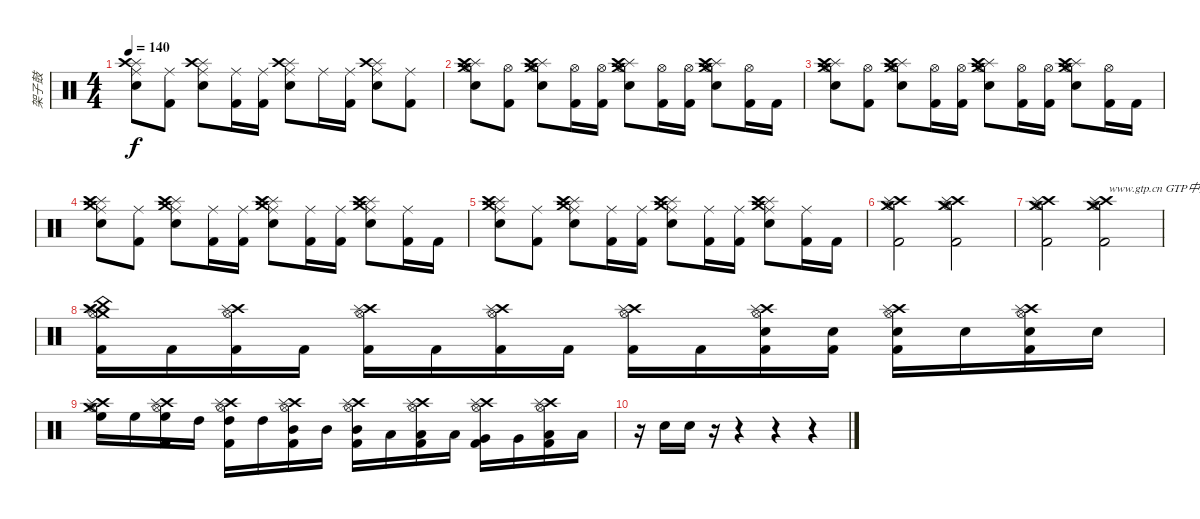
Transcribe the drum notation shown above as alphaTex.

\track ("架子鼓" "架子鼓") {instrument percussion}
\staff {score}
\articulation defaults
\ts (4 4)
\tempo 140
\clef neutral
\ks c
("Ride (middle)" "Splash (hit)" "Snare (hit) 2" "Crash high (hit)").8{dy f} ("Ride (middle)" "Kick (hit) 2").8 ("Ride (middle)" "Splash (hit)" "Snare (hit) 2" "Crash high (hit)").8 ("Ride (middle)" "Kick (hit) 2").16 ("Ride (middle)" "Kick (hit) 2").16 ("Ride (middle)" "Splash (hit)" "Snare (hit) 2" "Crash high (hit)").8 "Ride (middle)".16 ("Ride (middle)" "Kick (hit) 2").16 ("Ride (middle)" "Splash (hit)" "Snare (hit) 2" "Crash high (hit)").8 ("Ride (middle)" "Kick (hit) 2").8 |
("Hi-Hat (open)" "Splash (hit)" "Snare (hit) 2" "Crash high (hit)" "Crash medium (hit)").8 ("Hi-Hat (open)" "Kick (hit) 2").8 ("Hi-Hat (open)" "Splash (hit)" "Snare (hit) 2" "Crash high (hit)" "Crash medium (hit)").8 ("Hi-Hat (open)" "Kick (hit) 2").16 ("Hi-Hat (open)" "Kick (hit) 2").16 ("Hi-Hat (open)" "Splash (hit)" "Snare (hit) 2" "Crash high (hit)" "Crash medium (hit)").8 ("Hi-Hat (open)" "Kick (hit) 2").16 ("Hi-Hat (open)" "Kick (hit) 2").16 ("Hi-Hat (open)" "Splash (hit)" "Snare (hit) 2" "Crash high (hit)" "Crash medium (hit)").8 ("Hi-Hat (open)" "Kick (hit) 2").16 "Kick (hit) 2".16 |
("Hi-Hat (open)" "Splash (hit)" "Snare (hit) 2" "Crash high (hit)" "Crash medium (hit)").8 ("Hi-Hat (open)" "Kick (hit) 2").8 ("Hi-Hat (open)" "Splash (hit)" "Snare (hit) 2" "Crash high (hit)" "Crash medium (hit)").8 ("Hi-Hat (open)" "Kick (hit) 2").16 ("Hi-Hat (open)" "Kick (hit) 2").16 ("Hi-Hat (open)" "Splash (hit)" "Snare (hit) 2" "Crash high (hit)" "Crash medium (hit)").8 ("Hi-Hat (open)" "Kick (hit) 2").16 ("Hi-Hat (open)" "Kick (hit) 2").16 ("Hi-Hat (open)" "Splash (hit)" "Snare (hit) 2" "Crash high (hit)" "Crash medium (hit)").8 ("Hi-Hat (open)" "Kick (hit) 2").16 "Kick (hit) 2".16 |
("Ride (middle)" "Splash (hit)" "Snare (hit) 2" "Crash high (hit)" "Crash medium (hit)").8 ("Ride (middle)" "Kick (hit) 2").8 ("Ride (middle)" "Splash (hit)" "Snare (hit) 2" "Crash high (hit)" "Crash medium (hit)").8 ("Ride (middle)" "Kick (hit) 2").16 ("Ride (middle)" "Kick (hit) 2").16 ("Ride (middle)" "Splash (hit)" "Snare (hit) 2" "Crash high (hit)" "Crash medium (hit)").8 ("Ride (middle)" "Kick (hit) 2").16 ("Ride (middle)" "Kick (hit) 2").16 ("Ride (middle)" "Splash (hit)" "Snare (hit) 2" "Crash high (hit)" "Crash medium (hit)").8 ("Ride (middle)" "Kick (hit) 2").16 "Kick (hit) 2".16 |
("Ride (middle)" "Splash (hit)" "Snare (hit) 2" "Crash high (hit)" "Crash medium (hit)").8 ("Ride (middle)" "Kick (hit) 2").8 ("Ride (middle)" "Splash (hit)" "Snare (hit) 2" "Crash high (hit)" "Crash medium (hit)").8 ("Ride (middle)" "Kick (hit) 2").16 ("Ride (middle)" "Kick (hit) 2").16 ("Ride (middle)" "Splash (hit)" "Snare (hit) 2" "Crash high (hit)" "Crash medium (hit)").8 ("Ride (middle)" "Kick (hit) 2").16 ("Ride (middle)" "Kick (hit) 2").16 ("Ride (middle)" "Splash (hit)" "Snare (hit) 2" "Crash high (hit)" "Crash medium (hit)").8 ("Ride (middle)" "Kick (hit) 2").16 "Kick (hit) 2".16 |
("Crash high (hit)" "Splash (hit)" "Crash medium (hit)" "Hi-Hat (open)" "Kick (hit) 2").2 ("Crash high (hit)" "Splash (hit)" "Crash medium (hit)" "Hi-Hat (open)" "Kick (hit) 2").2 |
("Crash high (hit)" "Splash (hit)" "Crash medium (hit)" "Hi-Hat (open)" "Kick (hit) 2").2{txt "                    www.gtp.cn GTP中文网"} ("Crash high (hit)" "Splash (hit)" "Crash medium (hit)" "Hi-Hat (open)" "Kick (hit) 2").2 |
("Crash high (hit)" "Splash (hit)" "Crash medium (hit)" "Hi-Hat (open)" "China (hit)" "Kick (hit) 2").16 "Kick (hit) 2".16 ("Crash high (hit)" "Splash (hit)" "Hi-Hat (open)" "Kick (hit) 2").16 "Kick (hit) 2".16 ("Crash high (hit)" "Splash (hit)" "Hi-Hat (open)" "Kick (hit) 2").16 "Kick (hit) 2".16 ("Crash high (hit)" "Splash (hit)" "Hi-Hat (open)" "Kick (hit) 2").16 "Kick (hit) 2".16 ("Crash high (hit)" "Splash (hit)" "Hi-Hat (open)" "Kick (hit) 2").16 "Kick (hit) 2".16 ("Crash high (hit)" "Splash (hit)" "Hi-Hat (open)" "Snare (hit) 2" "Kick (hit) 2").16 ("Snare (hit) 2" "Kick (hit) 2").16 ("Crash high (hit)" "Splash (hit)" "Hi-Hat (open)" "Snare (hit) 2" "Kick (hit) 2").16 "Snare (hit) 2".16 ("Crash high (hit)" "Splash (hit)" "Hi-Hat (open)" "Snare (hit) 2" "Kick (hit) 2").16 "Snare (hit) 2".16 |
("Crash high (hit)" "Splash (hit)" "Crash medium (hit)" "Hi-Hat (open)" "High Floor Tom (hit)").16 "High Floor Tom (hit)".16 ("Crash high (hit)" "Splash (hit)" "Hi-Hat (open)" "High Floor Tom (hit)" "Kick (hit) 2").16 "High Tom (hit)".16 ("Crash high (hit)" "Splash (hit)" "Hi-Hat (open)" "High Tom (hit)" "Kick (hit) 2").16 "High Tom (hit)".16 ("Crash high (hit)" "Splash (hit)" "Hi-Hat (open)" "Mid Tom (hit)" "Kick (hit) 2").16 "Mid Tom (hit)".16 ("Crash high (hit)" "Splash (hit)" "Hi-Hat (open)" "Mid Tom (hit)" "Kick (hit) 2").16 "Low Tom (hit)".16 ("Crash high (hit)" "Splash (hit)" "Hi-Hat (open)" "Low Tom (hit)" "Kick (hit) 2").16 "Low Tom (hit)".16 ("Crash high (hit)" "Splash (hit)" "Hi-Hat (open)" "Very Low Tom (hit)" "Kick (hit) 2").16 "Very Low Tom (hit)".16 ("Crash high (hit)" "Splash (hit)" "Hi-Hat (open)" "Low Floor Tom (hit)" "Kick (hit) 2").16 "Low Floor Tom (hit)".16 |
r.16 "Snare (hit) 2".16 "Snare (hit) 2".16 r.16 r.4 r.4 r.4
